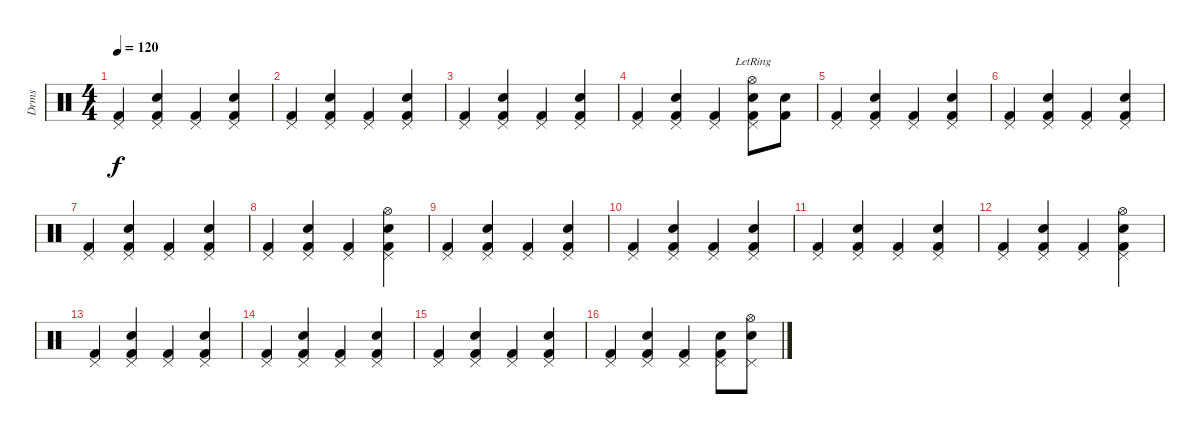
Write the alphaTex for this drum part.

\track ("Drms" "Drms") {instrument percussion}
\staff {score}
\articulation defaults
\ts (4 4)
\tempo 120
\clef neutral
\ks c
("Kick (hit) 2" "Pedal Hi-Hat (hit)").4{dy f} ("Kick (hit) 2" "Snare (hit) 2" "Pedal Hi-Hat (hit)").4 ("Kick (hit) 2" "Pedal Hi-Hat (hit)").4 ("Kick (hit) 2" "Snare (hit) 2" "Pedal Hi-Hat (hit)").4 |
("Kick (hit) 2" "Pedal Hi-Hat (hit)").4 ("Kick (hit) 2" "Snare (hit) 2" "Pedal Hi-Hat (hit)").4 ("Kick (hit) 2" "Pedal Hi-Hat (hit)").4 ("Kick (hit) 2" "Snare (hit) 2" "Pedal Hi-Hat (hit)").4 |
("Kick (hit) 2" "Pedal Hi-Hat (hit)").4 ("Kick (hit) 2" "Snare (hit) 2" "Pedal Hi-Hat (hit)").4 ("Kick (hit) 2" "Pedal Hi-Hat (hit)").4 ("Kick (hit) 2" "Snare (hit) 2" "Pedal Hi-Hat (hit)").4 |
("Kick (hit) 2" "Pedal Hi-Hat (hit)").4 ("Kick (hit) 2" "Snare (hit) 2" "Pedal Hi-Hat (hit)").4 ("Kick (hit) 2" "Pedal Hi-Hat (hit)").4 ("Kick (hit) 2" "Snare (hit) 2" "Pedal Hi-Hat (hit)" "Hi-Hat (open)"{lr}).8 ("Kick (hit) 2" "Snare (hit) 2").8 |
("Kick (hit) 2" "Pedal Hi-Hat (hit)").4 ("Kick (hit) 2" "Snare (hit) 2" "Pedal Hi-Hat (hit)").4 ("Kick (hit) 2" "Pedal Hi-Hat (hit)").4 ("Kick (hit) 2" "Snare (hit) 2" "Pedal Hi-Hat (hit)").4 |
("Kick (hit) 2" "Pedal Hi-Hat (hit)").4 ("Kick (hit) 2" "Snare (hit) 2" "Pedal Hi-Hat (hit)").4 ("Kick (hit) 2" "Pedal Hi-Hat (hit)").4 ("Kick (hit) 2" "Snare (hit) 2" "Pedal Hi-Hat (hit)").4 |
("Kick (hit) 2" "Pedal Hi-Hat (hit)").4 ("Kick (hit) 2" "Snare (hit) 2" "Pedal Hi-Hat (hit)").4 ("Kick (hit) 2" "Pedal Hi-Hat (hit)").4 ("Kick (hit) 2" "Snare (hit) 2" "Pedal Hi-Hat (hit)").4 |
("Kick (hit) 2" "Pedal Hi-Hat (hit)").4 ("Kick (hit) 2" "Snare (hit) 2" "Pedal Hi-Hat (hit)").4 ("Kick (hit) 2" "Pedal Hi-Hat (hit)").4 ("Kick (hit) 2" "Snare (hit) 2" "Pedal Hi-Hat (hit)" "Hi-Hat (open)").4 |
("Kick (hit) 2" "Pedal Hi-Hat (hit)").4 ("Kick (hit) 2" "Snare (hit) 2" "Pedal Hi-Hat (hit)").4 ("Kick (hit) 2" "Pedal Hi-Hat (hit)").4 ("Kick (hit) 2" "Snare (hit) 2" "Pedal Hi-Hat (hit)").4 |
("Kick (hit) 2" "Pedal Hi-Hat (hit)").4 ("Kick (hit) 2" "Snare (hit) 2" "Pedal Hi-Hat (hit)").4 ("Kick (hit) 2" "Pedal Hi-Hat (hit)").4 ("Kick (hit) 2" "Snare (hit) 2" "Pedal Hi-Hat (hit)").4 |
("Kick (hit) 2" "Pedal Hi-Hat (hit)").4 ("Kick (hit) 2" "Snare (hit) 2" "Pedal Hi-Hat (hit)").4 ("Kick (hit) 2" "Pedal Hi-Hat (hit)").4 ("Kick (hit) 2" "Snare (hit) 2" "Pedal Hi-Hat (hit)").4 |
("Kick (hit) 2" "Pedal Hi-Hat (hit)").4 ("Kick (hit) 2" "Snare (hit) 2" "Pedal Hi-Hat (hit)").4 ("Kick (hit) 2" "Pedal Hi-Hat (hit)").4 ("Kick (hit) 2" "Snare (hit) 2" "Pedal Hi-Hat (hit)" "Hi-Hat (open)").4 |
("Kick (hit) 2" "Pedal Hi-Hat (hit)").4 ("Kick (hit) 2" "Snare (hit) 2" "Pedal Hi-Hat (hit)").4 ("Kick (hit) 2" "Pedal Hi-Hat (hit)").4 ("Kick (hit) 2" "Snare (hit) 2" "Pedal Hi-Hat (hit)").4 |
("Kick (hit) 2" "Pedal Hi-Hat (hit)").4 ("Kick (hit) 2" "Snare (hit) 2" "Pedal Hi-Hat (hit)").4 ("Kick (hit) 2" "Pedal Hi-Hat (hit)").4 ("Kick (hit) 2" "Snare (hit) 2" "Pedal Hi-Hat (hit)").4 |
("Kick (hit) 2" "Pedal Hi-Hat (hit)").4 ("Kick (hit) 2" "Snare (hit) 2" "Pedal Hi-Hat (hit)").4 ("Kick (hit) 2" "Pedal Hi-Hat (hit)").4 ("Kick (hit) 2" "Snare (hit) 2" "Pedal Hi-Hat (hit)").4 |
("Kick (hit) 2" "Pedal Hi-Hat (hit)").4 ("Kick (hit) 2" "Snare (hit) 2" "Pedal Hi-Hat (hit)").4 ("Kick (hit) 2" "Pedal Hi-Hat (hit)").4 ("Kick (hit) 2" "Snare (hit) 2" "Pedal Hi-Hat (hit)").8 ("Snare (hit) 2" "Pedal Hi-Hat (hit)" "Hi-Hat (open)").8
